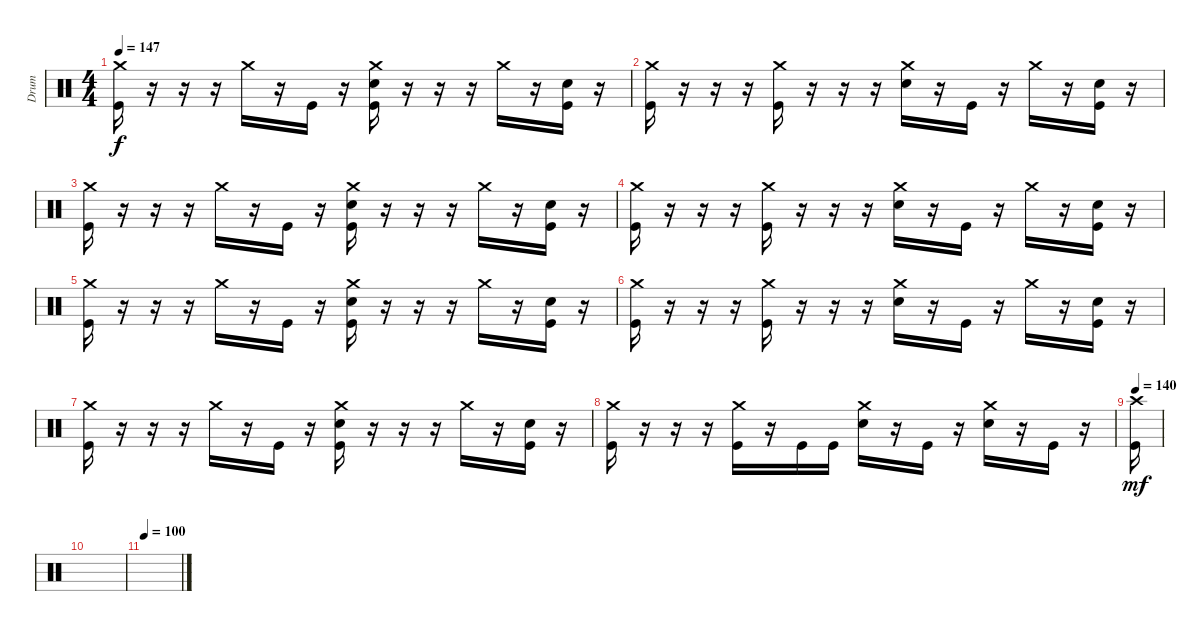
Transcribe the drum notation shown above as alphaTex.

\track ("Drum" "Drum") {instrument percussion}
\staff {score}
\articulation defaults
\ts (4 4)
\tempo 147
\clef neutral
\ks c
("Crash medium (hit)" "Kick (hit)").16{dy f} r.16 r.16 r.16 "Crash medium (hit)".16 r.16 "Kick (hit)".16 r.16 ("Crash medium (hit)" "Electric Snare (hit)" "Kick (hit)").16 r.16 r.16 r.16 "Crash medium (hit)".16 r.16 ("Electric Snare (hit)" "Kick (hit)").16 r.16 |
("Crash medium (hit)" "Kick (hit)").16 r.16 r.16 r.16 ("Crash medium (hit)" "Kick (hit)").16 r.16 r.16 r.16 ("Crash medium (hit)" "Electric Snare (hit)").16 r.16 "Kick (hit)".16 r.16 "Crash medium (hit)".16 r.16 ("Electric Snare (hit)" "Kick (hit)").16 r.16 |
("Crash medium (hit)" "Kick (hit)").16 r.16 r.16 r.16 "Crash medium (hit)".16 r.16 "Kick (hit)".16 r.16 ("Crash medium (hit)" "Electric Snare (hit)" "Kick (hit)").16 r.16 r.16 r.16 "Crash medium (hit)".16 r.16 ("Electric Snare (hit)" "Kick (hit)").16 r.16 |
("Crash medium (hit)" "Kick (hit)").16 r.16 r.16 r.16 ("Crash medium (hit)" "Kick (hit)").16 r.16 r.16 r.16 ("Crash medium (hit)" "Electric Snare (hit)").16 r.16 "Kick (hit)".16 r.16 "Crash medium (hit)".16 r.16 ("Electric Snare (hit)" "Kick (hit)").16 r.16 |
("Crash medium (hit)" "Kick (hit)").16 r.16 r.16 r.16 "Crash medium (hit)".16 r.16 "Kick (hit)".16 r.16 ("Crash medium (hit)" "Electric Snare (hit)" "Kick (hit)").16 r.16 r.16 r.16 "Crash medium (hit)".16 r.16 ("Electric Snare (hit)" "Kick (hit)").16 r.16 |
("Crash medium (hit)" "Kick (hit)").16 r.16 r.16 r.16 ("Crash medium (hit)" "Kick (hit)").16 r.16 r.16 r.16 ("Crash medium (hit)" "Electric Snare (hit)").16 r.16 "Kick (hit)".16 r.16 "Crash medium (hit)".16 r.16 ("Electric Snare (hit)" "Kick (hit)").16 r.16 |
("Crash medium (hit)" "Kick (hit)").16 r.16 r.16 r.16 "Crash medium (hit)".16 r.16 "Kick (hit)".16 r.16 ("Crash medium (hit)" "Electric Snare (hit)" "Kick (hit)").16 r.16 r.16 r.16 "Crash medium (hit)".16 r.16 ("Electric Snare (hit)" "Kick (hit)").16 r.16 |
("Crash medium (hit)" "Kick (hit)").16 r.16 r.16 r.16 ("Crash medium (hit)" "Kick (hit)").16 r.16 "Kick (hit)".16 "Kick (hit)".16 ("Crash medium (hit)" "Electric Snare (hit)").16 r.16 "Kick (hit)".16 r.16 ("Crash medium (hit)" "Electric Snare (hit)").16 r.16 "Kick (hit)".16 r.16 |
\tempo 140
("Crash high (hit)" "Kick (hit)").16{dy mf} |
|
\tempo 100
